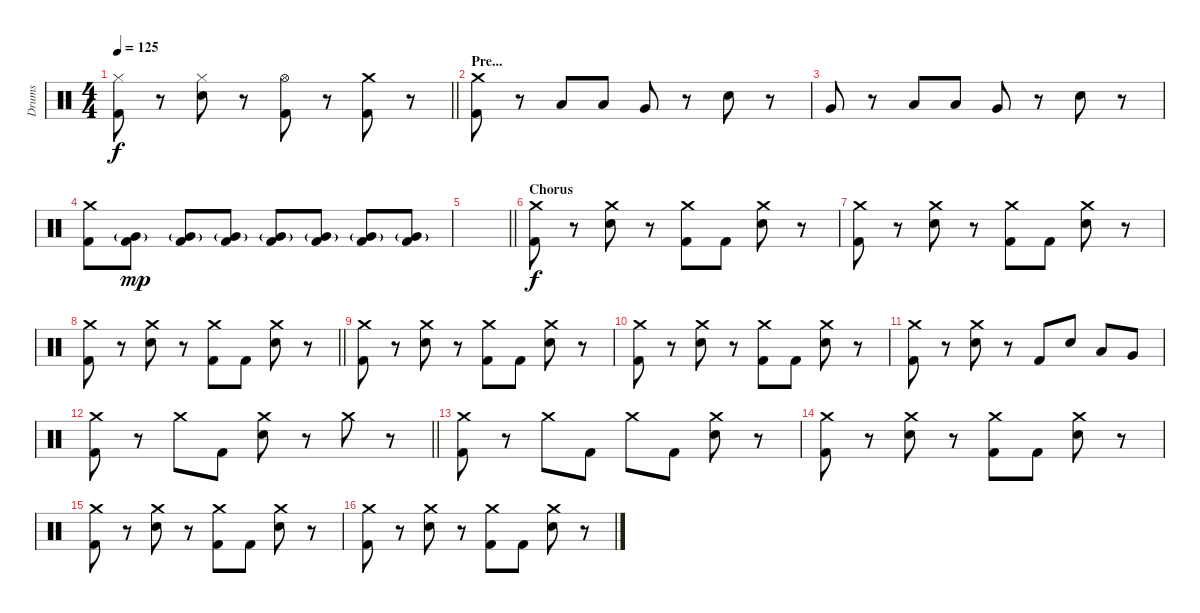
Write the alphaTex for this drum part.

\track ("Drums" "Drums") {instrument percussion}
\staff {score}
\articulation defaults
\ts (4 4)
\tempo 125
\clef neutral
\barLineRight lightlight
\ks c
("Hi-Hat (closed)" "Kick (hit) 2").8{dy f} r.8 ("Hi-Hat (closed)" "Electric Snare (hit)").8 r.8 ("Hi-Hat (open)" "Kick (hit) 2").8 r.8 ("Crash medium (hit)" "Kick (hit) 2").8 r.8 |
\section ("" "Pre...")
("Crash medium (hit)" "Kick (hit) 2").8 r.8 "Low Tom (hit)".8 "Low Tom (hit)".8 "Very Low Tom (hit)".8 r.8 "Electric Snare (hit)".8 r.8 |
"Very Low Tom (hit)".8 r.8 "Low Tom (hit)".8 "Low Tom (hit)".8 "Very Low Tom (hit)".8 r.8 "Electric Snare (hit)".8 r.8 |
("Crash medium (hit)" "Kick (hit) 2").8 ("Kick (hit) 2" "Very Low Tom (hit)"{g}).8{dy mp} ("Kick (hit) 2" "Very Low Tom (hit)"{g}).8 ("Kick (hit) 2" "Very Low Tom (hit)"{g}).8 ("Kick (hit) 2" "Very Low Tom (hit)"{g}).8 ("Kick (hit) 2" "Very Low Tom (hit)"{g}).8 ("Kick (hit) 2" "Very Low Tom (hit)"{g}).8 ("Kick (hit) 2" "Very Low Tom (hit)"{g}).8 |
\barLineRight lightlight
|
\section ("" "Chorus")
("Crash medium (hit)" "Kick (hit) 2").8{dy f} r.8 ("Crash medium (hit)" "Electric Snare (hit)").8 r.8 ("Crash medium (hit)" "Kick (hit) 2").8 "Kick (hit) 2".8 ("Crash medium (hit)" "Electric Snare (hit)").8 r.8 |
("Crash medium (hit)" "Kick (hit) 2").8 r.8 ("Crash medium (hit)" "Electric Snare (hit)").8 r.8 ("Crash medium (hit)" "Kick (hit) 2").8 "Kick (hit) 2".8 ("Crash medium (hit)" "Electric Snare (hit)").8 r.8 |
\barLineRight lightlight
("Crash medium (hit)" "Kick (hit) 2").8 r.8 ("Crash medium (hit)" "Electric Snare (hit)").8 r.8 ("Crash medium (hit)" "Kick (hit) 2").8 "Kick (hit) 2".8 ("Crash medium (hit)" "Electric Snare (hit)").8 r.8 |
("Crash medium (hit)" "Kick (hit) 2").8 r.8 ("Crash medium (hit)" "Electric Snare (hit)").8 r.8 ("Crash medium (hit)" "Kick (hit) 2").8 "Kick (hit) 2".8 ("Crash medium (hit)" "Electric Snare (hit)").8 r.8 |
("Crash medium (hit)" "Kick (hit) 2").8 r.8 ("Crash medium (hit)" "Electric Snare (hit)").8 r.8 ("Crash medium (hit)" "Kick (hit) 2").8 "Kick (hit) 2".8 ("Crash medium (hit)" "Electric Snare (hit)").8 r.8 |
("Crash medium (hit)" "Kick (hit) 2").8 r.8 ("Crash medium (hit)" "Electric Snare (hit)").8 r.8 "Kick (hit) 2".8 "Electric Snare (hit)".8 "Low Tom (hit)".8 "Very Low Tom (hit)".8 |
\barLineRight lightlight
("Crash medium (hit)" "Kick (hit) 2").8 r.8 "Crash medium (hit)".8 "Kick (hit) 2".8 ("Crash medium (hit)" "Electric Snare (hit)").8 r.8 "Crash medium (hit)".8 r.8 |
("Crash medium (hit)" "Kick (hit) 2").8 r.8 "Crash medium (hit)".8 "Kick (hit) 2".8 "Crash medium (hit)".8 "Kick (hit) 2".8 ("Crash medium (hit)" "Electric Snare (hit)").8 r.8 |
("Crash medium (hit)" "Kick (hit) 2").8 r.8 ("Crash medium (hit)" "Electric Snare (hit)").8 r.8 ("Crash medium (hit)" "Kick (hit) 2").8 "Kick (hit) 2".8 ("Crash medium (hit)" "Electric Snare (hit)").8 r.8 |
("Crash medium (hit)" "Kick (hit) 2").8 r.8 ("Crash medium (hit)" "Electric Snare (hit)").8 r.8 ("Crash medium (hit)" "Kick (hit) 2").8 "Kick (hit) 2".8 ("Crash medium (hit)" "Electric Snare (hit)").8 r.8 |
("Crash medium (hit)" "Kick (hit) 2").8 r.8 ("Crash medium (hit)" "Electric Snare (hit)").8 r.8 ("Crash medium (hit)" "Kick (hit) 2").8 "Kick (hit) 2".8 ("Crash medium (hit)" "Electric Snare (hit)").8 r.8
